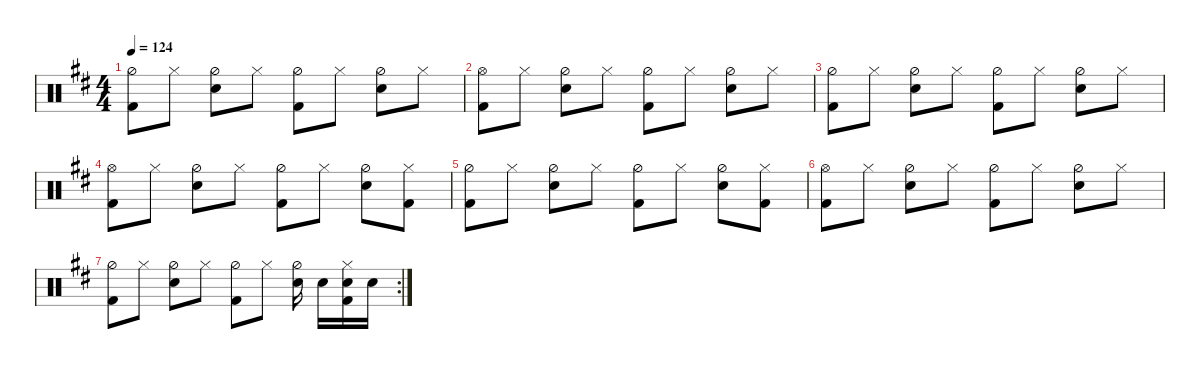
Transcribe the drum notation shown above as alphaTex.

\hideDynamics
\bracketExtendMode nobrackets
\singleTrackTrackNamePolicy hidden
\multiTrackTrackNamePolicy hidden
\otherSystemsTrackNameOrientation horizontal
\track ("Drumkit" "Drums") {instrument percussion}
\staff {score}
\articulation defaults
\ts (4 4)
\tempo 124
\clef neutral
\ks bminor
("Kick (hit) 2"{acc forcenatural} "Hi-Hat (half)"{acc forcenatural}).8{dy f beam Down} "Hi-Hat (closed)"{acc forcenatural}.8{beam Down} ("Hi-Hat (half)"{acc forcenatural} "Snare (hit) 2"{acc forcenatural}).8{beam Down} "Hi-Hat (closed)"{acc forcenatural}.8{beam Down} ("Hi-Hat (half)"{acc forcenatural} "Kick (hit) 2"{acc forcenatural}).8{beam Down} "Hi-Hat (closed)"{acc forcenatural}.8{beam Down} ("Hi-Hat (half)"{acc forcenatural} "Snare (hit) 2"{acc forcenatural}).8{beam Down} "Hi-Hat (closed)"{acc forcenatural}.8{beam Down} |
("Kick (hit) 2"{acc forcenatural} "Hi-Hat (open)"{acc forcenatural}).8{beam Down} "Hi-Hat (closed)"{acc forcenatural}.8{beam Down} ("Hi-Hat (half)"{acc forcenatural} "Snare (hit) 2"{acc forcenatural}).8{beam Down} "Hi-Hat (closed)"{acc forcenatural}.8{beam Down} ("Hi-Hat (half)"{acc forcenatural} "Kick (hit) 2"{acc forcenatural}).8{beam Down} "Hi-Hat (closed)"{acc forcenatural}.8{beam Down} ("Snare (hit) 2"{acc forcenatural} "Hi-Hat (half)"{acc forcenatural}).8{beam Down} "Hi-Hat (closed)"{acc forcenatural}.8{beam Down} |
("Kick (hit) 2"{acc forcenatural} "Hi-Hat (half)"{acc forcenatural}).8{beam Down} "Hi-Hat (closed)"{acc forcenatural}.8{beam Down} ("Hi-Hat (half)"{acc forcenatural} "Snare (hit) 2"{acc forcenatural}).8{beam Down} "Hi-Hat (closed)"{acc forcenatural}.8{beam Down} ("Hi-Hat (half)"{acc forcenatural} "Kick (hit) 2"{acc forcenatural}).8{beam Down} "Hi-Hat (closed)"{acc forcenatural}.8{beam Down} ("Hi-Hat (half)"{acc forcenatural} "Snare (hit) 2"{acc forcenatural}).8{beam Down} "Hi-Hat (closed)"{acc forcenatural}.8{beam Down} |
("Kick (hit) 2"{acc forcenatural} "Hi-Hat (open)"{acc forcenatural}).8{beam Down} "Hi-Hat (closed)"{acc forcenatural}.8{beam Down} ("Hi-Hat (half)"{acc forcenatural} "Snare (hit) 2"{acc forcenatural}).8{beam Down} "Hi-Hat (closed)"{acc forcenatural}.8{beam Down} ("Hi-Hat (half)"{acc forcenatural} "Kick (hit) 2"{acc forcenatural}).8{beam Down} "Hi-Hat (closed)"{acc forcenatural}.8{beam Down} ("Hi-Hat (half)"{acc forcenatural} "Snare (hit) 2"{acc forcenatural}).8{beam Down} ("Hi-Hat (closed)"{acc forcenatural} "Kick (hit) 2"{acc forcenatural}).8{beam Down} |
("Kick (hit) 2"{acc forcenatural} "Hi-Hat (half)"{acc forcenatural}).8{beam Down} "Hi-Hat (closed)"{acc forcenatural}.8{beam Down} ("Hi-Hat (half)"{acc forcenatural} "Snare (hit) 2"{acc forcenatural}).8{beam Down} "Hi-Hat (closed)"{acc forcenatural}.8{beam Down} ("Hi-Hat (half)"{acc forcenatural} "Kick (hit) 2"{acc forcenatural}).8{beam Down} "Hi-Hat (closed)"{acc forcenatural}.8{beam Down} ("Hi-Hat (half)"{acc forcenatural} "Snare (hit) 2"{acc forcenatural}).8{beam Down} ("Hi-Hat (closed)"{acc forcenatural} "Kick (hit) 2"{acc forcenatural}).8{beam Down} |
("Kick (hit) 2"{acc forcenatural} "Hi-Hat (open)"{acc forcenatural}).8{beam Down} "Hi-Hat (closed)"{acc forcenatural}.8{beam Down} ("Hi-Hat (half)"{acc forcenatural} "Snare (hit) 2"{acc forcenatural}).8{beam Down} "Hi-Hat (closed)"{acc forcenatural}.8{beam Down} ("Hi-Hat (half)"{acc forcenatural} "Kick (hit) 2"{acc forcenatural}).8{beam Down} "Hi-Hat (closed)"{acc forcenatural}.8{beam Down} ("Hi-Hat (half)"{acc forcenatural} "Snare (hit) 2"{acc forcenatural}).8{beam Down} "Hi-Hat (closed)"{acc forcenatural}.8{beam Down} |
\rc 2
("Kick (hit) 2"{acc forcenatural} "Hi-Hat (half)"{acc forcenatural}).8{beam Down} "Hi-Hat (closed)"{acc forcenatural}.8{beam Down} ("Hi-Hat (half)"{acc forcenatural} "Snare (hit) 2"{acc forcenatural}).8{beam Down} "Hi-Hat (closed)"{acc forcenatural}.8{beam Down} ("Hi-Hat (half)"{acc forcenatural} "Kick (hit) 2"{acc forcenatural}).8{beam Down} "Hi-Hat (closed)"{acc forcenatural}.8{beam Down} ("Snare (hit) 2"{acc forcenatural} "Hi-Hat (half)"{acc forcenatural}).16{beam Down beam split} "Snare (hit) 2"{acc forcenatural}.16{beam Down} ("Hi-Hat (closed)"{acc forcenatural} "Snare (hit) 2"{acc forcenatural} "Kick (hit) 2"{acc forcenatural}).16{beam Down} "Snare (hit) 2"{acc forcenatural}.16{beam Down}
